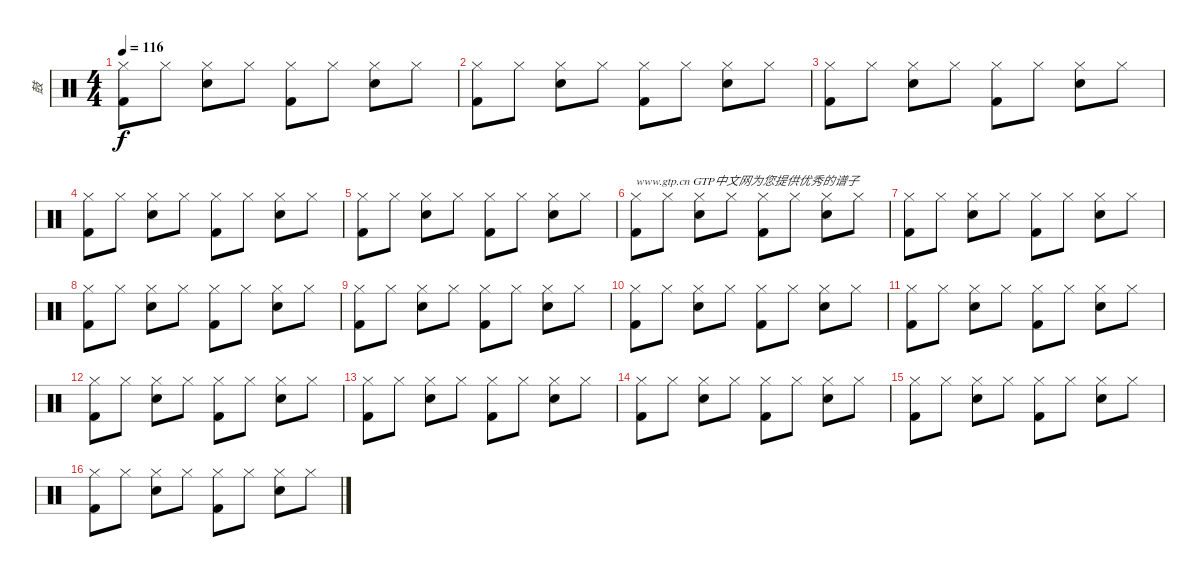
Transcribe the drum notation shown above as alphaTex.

\track ("鼓" "鼓") {instrument percussion}
\staff {score}
\articulation defaults
\ts (4 4)
\tempo 116
\clef neutral
\ks c
("Kick (hit) 2" "Hi-Hat (closed)").8{dy f} "Hi-Hat (closed)".8 ("Snare (hit) 2" "Hi-Hat (closed)").8 "Hi-Hat (closed)".8 ("Kick (hit) 2" "Hi-Hat (closed)").8 "Hi-Hat (closed)".8 ("Snare (hit) 2" "Hi-Hat (closed)").8 "Hi-Hat (closed)".8 |
("Kick (hit) 2" "Hi-Hat (closed)").8 "Hi-Hat (closed)".8 ("Snare (hit) 2" "Hi-Hat (closed)").8 "Hi-Hat (closed)".8 ("Kick (hit) 2" "Hi-Hat (closed)").8 "Hi-Hat (closed)".8 ("Snare (hit) 2" "Hi-Hat (closed)").8 "Hi-Hat (closed)".8 |
("Kick (hit) 2" "Hi-Hat (closed)").8 "Hi-Hat (closed)".8 ("Snare (hit) 2" "Hi-Hat (closed)").8 "Hi-Hat (closed)".8 ("Kick (hit) 2" "Hi-Hat (closed)").8 "Hi-Hat (closed)".8 ("Snare (hit) 2" "Hi-Hat (closed)").8 "Hi-Hat (closed)".8 |
("Kick (hit) 2" "Hi-Hat (closed)").8 "Hi-Hat (closed)".8 ("Snare (hit) 2" "Hi-Hat (closed)").8 "Hi-Hat (closed)".8 ("Kick (hit) 2" "Hi-Hat (closed)").8 "Hi-Hat (closed)".8 ("Snare (hit) 2" "Hi-Hat (closed)").8 "Hi-Hat (closed)".8 |
("Kick (hit) 2" "Hi-Hat (closed)").8 "Hi-Hat (closed)".8 ("Snare (hit) 2" "Hi-Hat (closed)").8 "Hi-Hat (closed)".8 ("Kick (hit) 2" "Hi-Hat (closed)").8 "Hi-Hat (closed)".8 ("Snare (hit) 2" "Hi-Hat (closed)").8 "Hi-Hat (closed)".8 |
("Kick (hit) 2" "Hi-Hat (closed)").8{txt "www.gtp.cn GTP中文网为您提供优秀的谱子"} "Hi-Hat (closed)".8 ("Snare (hit) 2" "Hi-Hat (closed)").8 "Hi-Hat (closed)".8 ("Kick (hit) 2" "Hi-Hat (closed)").8 "Hi-Hat (closed)".8 ("Snare (hit) 2" "Hi-Hat (closed)").8 "Hi-Hat (closed)".8 |
("Kick (hit) 2" "Hi-Hat (closed)").8 "Hi-Hat (closed)".8 ("Snare (hit) 2" "Hi-Hat (closed)").8 "Hi-Hat (closed)".8 ("Kick (hit) 2" "Hi-Hat (closed)").8 "Hi-Hat (closed)".8 ("Snare (hit) 2" "Hi-Hat (closed)").8 "Hi-Hat (closed)".8 |
("Kick (hit) 2" "Hi-Hat (closed)").8 "Hi-Hat (closed)".8 ("Snare (hit) 2" "Hi-Hat (closed)").8 "Hi-Hat (closed)".8 ("Kick (hit) 2" "Hi-Hat (closed)").8 "Hi-Hat (closed)".8 ("Snare (hit) 2" "Hi-Hat (closed)").8 "Hi-Hat (closed)".8 |
("Kick (hit) 2" "Hi-Hat (closed)").8 "Hi-Hat (closed)".8 ("Snare (hit) 2" "Hi-Hat (closed)").8 "Hi-Hat (closed)".8 ("Kick (hit) 2" "Hi-Hat (closed)").8 "Hi-Hat (closed)".8 ("Snare (hit) 2" "Hi-Hat (closed)").8 "Hi-Hat (closed)".8 |
("Kick (hit) 2" "Hi-Hat (closed)").8 "Hi-Hat (closed)".8 ("Snare (hit) 2" "Hi-Hat (closed)").8 "Hi-Hat (closed)".8 ("Kick (hit) 2" "Hi-Hat (closed)").8 "Hi-Hat (closed)".8 ("Snare (hit) 2" "Hi-Hat (closed)").8 "Hi-Hat (closed)".8 |
("Kick (hit) 2" "Hi-Hat (closed)").8 "Hi-Hat (closed)".8 ("Snare (hit) 2" "Hi-Hat (closed)").8 "Hi-Hat (closed)".8 ("Kick (hit) 2" "Hi-Hat (closed)").8 "Hi-Hat (closed)".8 ("Snare (hit) 2" "Hi-Hat (closed)").8 "Hi-Hat (closed)".8 |
("Kick (hit) 2" "Hi-Hat (closed)").8 "Hi-Hat (closed)".8 ("Snare (hit) 2" "Hi-Hat (closed)").8 "Hi-Hat (closed)".8 ("Kick (hit) 2" "Hi-Hat (closed)").8 "Hi-Hat (closed)".8 ("Snare (hit) 2" "Hi-Hat (closed)").8 "Hi-Hat (closed)".8 |
("Kick (hit) 2" "Hi-Hat (closed)").8 "Hi-Hat (closed)".8 ("Snare (hit) 2" "Hi-Hat (closed)").8 "Hi-Hat (closed)".8 ("Kick (hit) 2" "Hi-Hat (closed)").8 "Hi-Hat (closed)".8 ("Snare (hit) 2" "Hi-Hat (closed)").8 "Hi-Hat (closed)".8 |
("Kick (hit) 2" "Hi-Hat (closed)").8 "Hi-Hat (closed)".8 ("Snare (hit) 2" "Hi-Hat (closed)").8 "Hi-Hat (closed)".8 ("Kick (hit) 2" "Hi-Hat (closed)").8 "Hi-Hat (closed)".8 ("Snare (hit) 2" "Hi-Hat (closed)").8 "Hi-Hat (closed)".8 |
("Kick (hit) 2" "Hi-Hat (closed)").8 "Hi-Hat (closed)".8 ("Snare (hit) 2" "Hi-Hat (closed)").8 "Hi-Hat (closed)".8 ("Kick (hit) 2" "Hi-Hat (closed)").8 "Hi-Hat (closed)".8 ("Snare (hit) 2" "Hi-Hat (closed)").8 "Hi-Hat (closed)".8 |
("Kick (hit) 2" "Hi-Hat (closed)").8 "Hi-Hat (closed)".8 ("Snare (hit) 2" "Hi-Hat (closed)").8 "Hi-Hat (closed)".8 ("Kick (hit) 2" "Hi-Hat (closed)").8 "Hi-Hat (closed)".8 ("Snare (hit) 2" "Hi-Hat (closed)").8 "Hi-Hat (closed)".8
